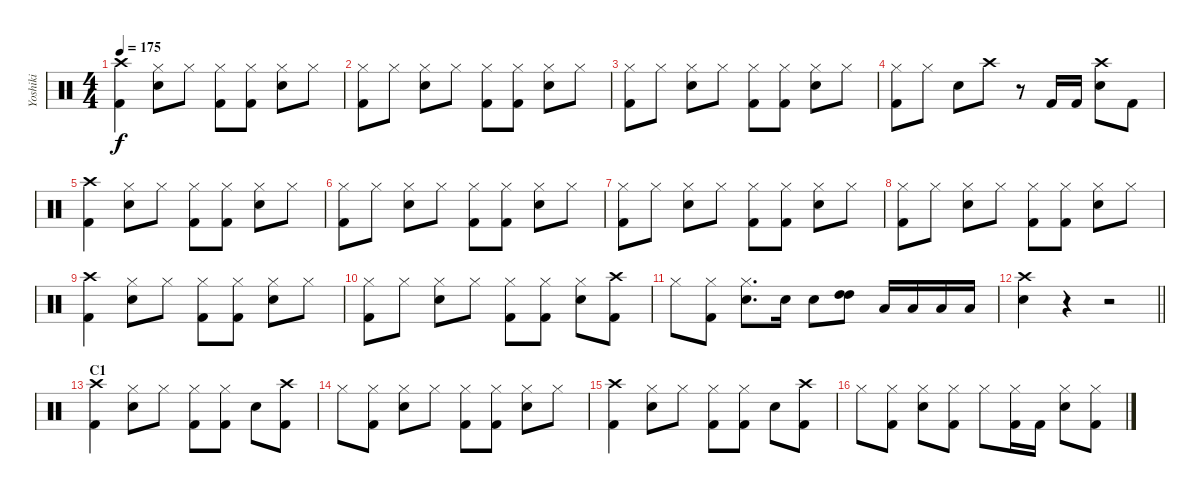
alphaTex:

\track ("Yoshiki" "Yoshiki") {instrument percussion}
\staff {score}
\articulation defaults
\ts (4 4)
\tempo 175
\clef neutral
\ks c
("Crash high (hit)" "Kick (hit) 2").4{dy f} ("Hi-Hat (closed)" "Electric Snare (hit)").8 "Hi-Hat (closed)".8 ("Hi-Hat (closed)" "Kick (hit) 2").8 ("Hi-Hat (closed)" "Kick (hit) 2").8 ("Hi-Hat (closed)" "Electric Snare (hit)").8 "Hi-Hat (closed)".8 |
("Hi-Hat (closed)" "Kick (hit) 2").8 "Hi-Hat (closed)".8 ("Hi-Hat (closed)" "Electric Snare (hit)").8 "Hi-Hat (closed)".8 ("Hi-Hat (closed)" "Kick (hit) 2").8 ("Hi-Hat (closed)" "Kick (hit) 2").8 ("Hi-Hat (closed)" "Electric Snare (hit)").8 "Hi-Hat (closed)".8 |
("Hi-Hat (closed)" "Kick (hit) 2").8 "Hi-Hat (closed)".8 ("Hi-Hat (closed)" "Electric Snare (hit)").8 "Hi-Hat (closed)".8 ("Hi-Hat (closed)" "Kick (hit) 2").8 ("Hi-Hat (closed)" "Kick (hit) 2").8 ("Hi-Hat (closed)" "Electric Snare (hit)").8 "Hi-Hat (closed)".8 |
("Hi-Hat (closed)" "Kick (hit) 2").8 "Hi-Hat (closed)".8 "Electric Snare (hit)".8 "Crash high (hit)".8 r.8 "Kick (hit) 2".16 "Kick (hit) 2".16 ("Crash high (hit)" "Electric Snare (hit)").8 "Kick (hit) 2".8 |
("Crash high (hit)" "Kick (hit) 2").4 ("Hi-Hat (closed)" "Electric Snare (hit)").8 "Hi-Hat (closed)".8 ("Hi-Hat (closed)" "Kick (hit) 2").8 ("Hi-Hat (closed)" "Kick (hit) 2").8 ("Hi-Hat (closed)" "Electric Snare (hit)").8 "Hi-Hat (closed)".8 |
("Hi-Hat (closed)" "Kick (hit) 2").8 "Hi-Hat (closed)".8 ("Hi-Hat (closed)" "Electric Snare (hit)").8 "Hi-Hat (closed)".8 ("Hi-Hat (closed)" "Kick (hit) 2").8 ("Hi-Hat (closed)" "Kick (hit) 2").8 ("Hi-Hat (closed)" "Electric Snare (hit)").8 "Hi-Hat (closed)".8 |
("Hi-Hat (closed)" "Kick (hit) 2").8 "Hi-Hat (closed)".8 ("Hi-Hat (closed)" "Electric Snare (hit)").8 "Hi-Hat (closed)".8 ("Hi-Hat (closed)" "Kick (hit) 2").8 ("Hi-Hat (closed)" "Kick (hit) 2").8 ("Hi-Hat (closed)" "Electric Snare (hit)").8 "Hi-Hat (closed)".8 |
("Hi-Hat (closed)" "Kick (hit) 2").8 "Hi-Hat (closed)".8 ("Hi-Hat (closed)" "Electric Snare (hit)").8 "Hi-Hat (closed)".8 ("Hi-Hat (closed)" "Kick (hit) 2").8 ("Hi-Hat (closed)" "Kick (hit) 2").8 ("Hi-Hat (closed)" "Electric Snare (hit)").8 "Hi-Hat (closed)".8 |
("Crash high (hit)" "Kick (hit) 2").4 ("Hi-Hat (closed)" "Electric Snare (hit)").8 "Hi-Hat (closed)".8 ("Hi-Hat (closed)" "Kick (hit) 2").8 ("Hi-Hat (closed)" "Kick (hit) 2").8 ("Hi-Hat (closed)" "Electric Snare (hit)").8 "Hi-Hat (closed)".8 |
("Hi-Hat (closed)" "Kick (hit) 2").8 "Hi-Hat (closed)".8 ("Hi-Hat (closed)" "Electric Snare (hit)").8 "Hi-Hat (closed)".8 ("Hi-Hat (closed)" "Kick (hit) 2").8 ("Hi-Hat (closed)" "Kick (hit) 2").8 ("Hi-Hat (closed)" "Electric Snare (hit)").8 ("Crash high (hit)" "Kick (hit) 2").8 |
"Hi-Hat (closed)".8 ("Hi-Hat (closed)" "Kick (hit) 2").8 ("Hi-Hat (closed)" "Electric Snare (hit)").8{d} "Electric Snare (hit)".16 "Electric Snare (hit)".8 ("High Tom (hit)" "High Tom (hit)").8 "Low Tom (hit)".16 "Low Tom (hit)".16 "Low Tom (hit)".16 "Low Tom (hit)".16 |
\barLineRight lightlight
("Crash high (hit)" "Electric Snare (hit)").4 r.4 r.2 |
\section ("" "C1")
("Crash high (hit)" "Kick (hit) 2").4 ("Hi-Hat (closed)" "Electric Snare (hit)").8 "Hi-Hat (closed)".8 ("Hi-Hat (closed)" "Kick (hit) 2").8 ("Hi-Hat (closed)" "Kick (hit) 2").8 "Electric Snare (hit)".8 ("Crash high (hit)" "Kick (hit) 2").8 |
"Hi-Hat (closed)".8 ("Hi-Hat (closed)" "Kick (hit) 2").8 ("Hi-Hat (closed)" "Electric Snare (hit)").8 "Hi-Hat (closed)".8 ("Hi-Hat (closed)" "Kick (hit) 2").8 ("Hi-Hat (closed)" "Kick (hit) 2").8 ("Hi-Hat (closed)" "Electric Snare (hit)").8 "Hi-Hat (closed)".8 |
("Crash high (hit)" "Kick (hit) 2").4 ("Hi-Hat (closed)" "Electric Snare (hit)").8 "Hi-Hat (closed)".8 ("Hi-Hat (closed)" "Kick (hit) 2").8 ("Hi-Hat (closed)" "Kick (hit) 2").8 "Electric Snare (hit)".8 ("Crash high (hit)" "Kick (hit) 2").8 |
"Hi-Hat (closed)".8 ("Hi-Hat (closed)" "Kick (hit) 2").8 ("Hi-Hat (closed)" "Electric Snare (hit)").8 ("Hi-Hat (closed)" "Kick (hit) 2").8 "Hi-Hat (closed)".8 ("Hi-Hat (closed)" "Kick (hit) 2").16 "Kick (hit) 2".16 ("Hi-Hat (closed)" "Electric Snare (hit)").8 ("Hi-Hat (closed)" "Kick (hit) 2").8
